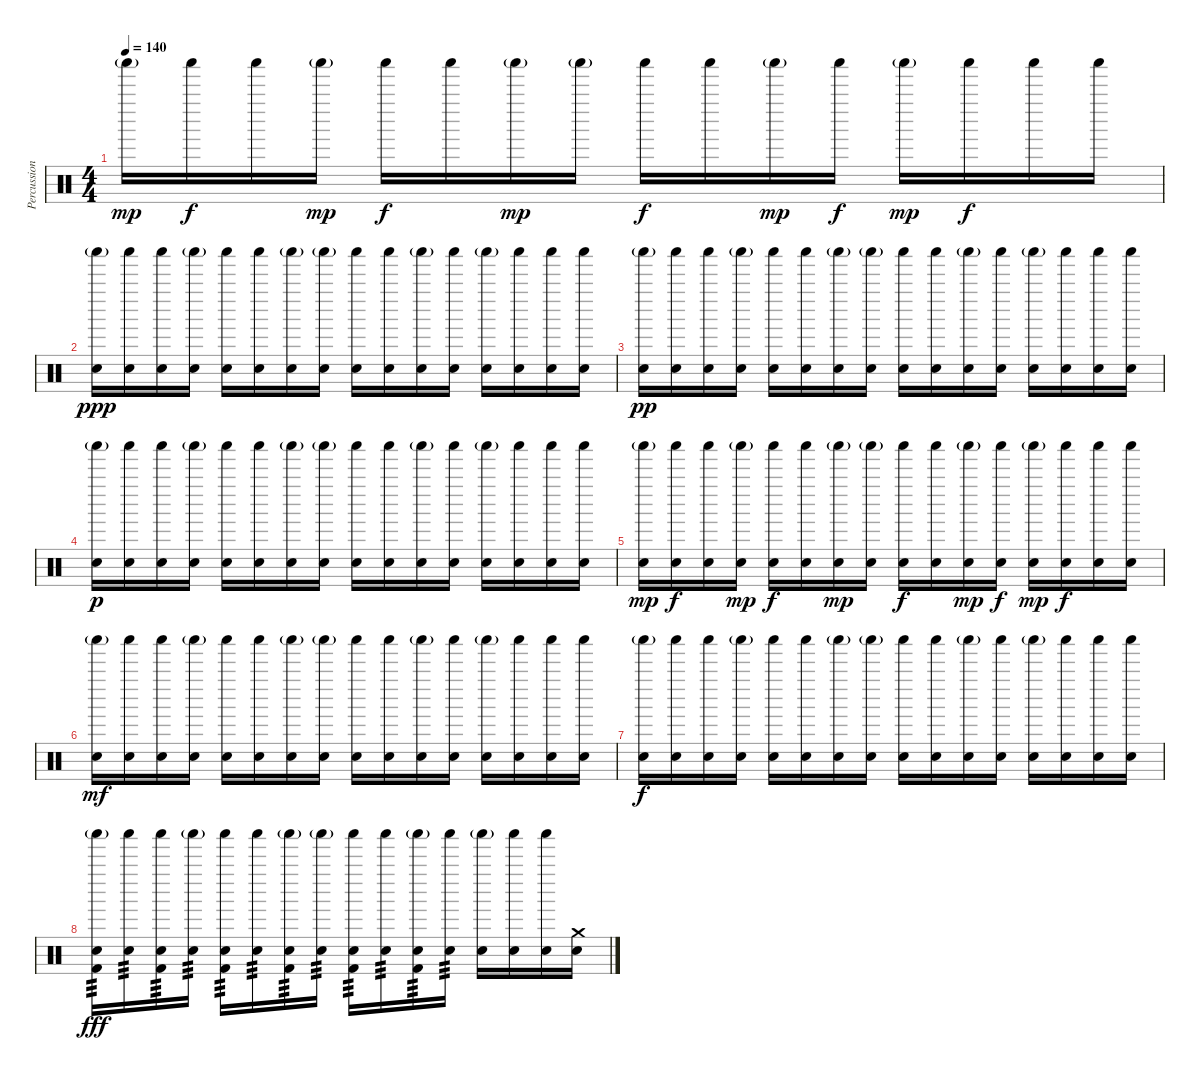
\track ("Percussion" "Percussion") {instrument percussion}
\staff {score}
\articulation defaults
\ts (4 4)
\tempo 140
\clef neutral
\ks c "Shaker (hit)"{g}.16{dy mp} "Shaker (hit)".16{dy f} "Shaker (hit)".16 "Shaker (hit)"{g}.16{dy mp} "Shaker (hit)".16{dy f} "Shaker (hit)".16 "Shaker (hit)"{g}.16{dy mp} "Shaker (hit)"{g}.16 "Shaker (hit)".16{dy f} "Shaker (hit)".16 "Shaker (hit)"{g}.16{dy mp} "Shaker (hit)".16{dy f} "Shaker (hit)"{g}.16{dy mp} "Shaker (hit)".16{dy f} "Shaker (hit)".16 "Shaker (hit)".16
|
("Shaker (hit)"{g} "Snare (hit) 2").16{dy ppp} ("Shaker (hit)" "Snare (hit) 2").16 ("Shaker (hit)" "Snare (hit) 2").16 ("Shaker (hit)"{g} "Snare (hit) 2").16 ("Shaker (hit)" "Snare (hit) 2").16 ("Shaker (hit)" "Snare (hit) 2").16 ("Shaker (hit)"{g} "Snare (hit) 2").16 ("Shaker (hit)"{g} "Snare (hit) 2").16 ("Shaker (hit)" "Snare (hit) 2").16 ("Shaker (hit)" "Snare (hit) 2").16 ("Shaker (hit)"{g} "Snare (hit) 2").16 ("Shaker (hit)" "Snare (hit) 2").16 ("Shaker (hit)"{g} "Snare (hit) 2").16 ("Shaker (hit)" "Snare (hit) 2").16 ("Shaker (hit)" "Snare (hit) 2").16 ("Shaker (hit)" "Snare (hit) 2").16 |
("Shaker (hit)"{g} "Snare (hit) 2").16{dy pp} ("Shaker (hit)" "Snare (hit) 2").16 ("Shaker (hit)" "Snare (hit) 2").16 ("Shaker (hit)"{g} "Snare (hit) 2").16 ("Shaker (hit)" "Snare (hit) 2").16 ("Shaker (hit)" "Snare (hit) 2").16 ("Shaker (hit)"{g} "Snare (hit) 2").16 ("Shaker (hit)"{g} "Snare (hit) 2").16 ("Shaker (hit)" "Snare (hit) 2").16 ("Shaker (hit)" "Snare (hit) 2").16 ("Shaker (hit)"{g} "Snare (hit) 2").16 ("Shaker (hit)" "Snare (hit) 2").16 ("Shaker (hit)"{g} "Snare (hit) 2").16 ("Shaker (hit)" "Snare (hit) 2").16 ("Shaker (hit)" "Snare (hit) 2").16 ("Shaker (hit)" "Snare (hit) 2").16 |
("Shaker (hit)"{g} "Snare (hit) 2").16{dy p} ("Shaker (hit)" "Snare (hit) 2").16 ("Shaker (hit)" "Snare (hit) 2").16 ("Shaker (hit)"{g} "Snare (hit) 2").16 ("Shaker (hit)" "Snare (hit) 2").16 ("Shaker (hit)" "Snare (hit) 2").16 ("Shaker (hit)"{g} "Snare (hit) 2").16 ("Shaker (hit)"{g} "Snare (hit) 2").16 ("Shaker (hit)" "Snare (hit) 2").16 ("Shaker (hit)" "Snare (hit) 2").16 ("Shaker (hit)"{g} "Snare (hit) 2").16 ("Shaker (hit)" "Snare (hit) 2").16 ("Shaker (hit)"{g} "Snare (hit) 2").16 ("Shaker (hit)" "Snare (hit) 2").16 ("Shaker (hit)" "Snare (hit) 2").16 ("Shaker (hit)" "Snare (hit) 2").16 |
("Shaker (hit)"{g} "Snare (hit) 2").16{dy mp} ("Shaker (hit)" "Snare (hit) 2").16{dy f} ("Shaker (hit)" "Snare (hit) 2").16 ("Shaker (hit)"{g} "Snare (hit) 2").16{dy mp} ("Shaker (hit)" "Snare (hit) 2").16{dy f} ("Shaker (hit)" "Snare (hit) 2").16 ("Shaker (hit)"{g} "Snare (hit) 2").16{dy mp} ("Shaker (hit)"{g} "Snare (hit) 2").16 ("Shaker (hit)" "Snare (hit) 2").16{dy f} ("Shaker (hit)" "Snare (hit) 2").16 ("Shaker (hit)"{g} "Snare (hit) 2").16{dy mp} ("Shaker (hit)" "Snare (hit) 2").16{dy f} ("Shaker (hit)"{g} "Snare (hit) 2").16{dy mp} ("Shaker (hit)" "Snare (hit) 2").16{dy f} ("Shaker (hit)" "Snare (hit) 2").16 ("Shaker (hit)" "Snare (hit) 2").16 |
("Shaker (hit)"{g} "Snare (hit) 2").16{dy mf} ("Shaker (hit)" "Snare (hit) 2").16 ("Shaker (hit)" "Snare (hit) 2").16 ("Shaker (hit)"{g} "Snare (hit) 2").16 ("Shaker (hit)" "Snare (hit) 2").16 ("Shaker (hit)" "Snare (hit) 2").16 ("Shaker (hit)"{g} "Snare (hit) 2").16 ("Shaker (hit)"{g} "Snare (hit) 2").16 ("Shaker (hit)" "Snare (hit) 2").16 ("Shaker (hit)" "Snare (hit) 2").16 ("Shaker (hit)"{g} "Snare (hit) 2").16 ("Shaker (hit)" "Snare (hit) 2").16 ("Shaker (hit)"{g} "Snare (hit) 2").16 ("Shaker (hit)" "Snare (hit) 2").16 ("Shaker (hit)" "Snare (hit) 2").16 ("Shaker (hit)" "Snare (hit) 2").16 |
("Shaker (hit)"{g} "Snare (hit) 2").16{dy f} ("Shaker (hit)" "Snare (hit) 2").16 ("Shaker (hit)" "Snare (hit) 2").16 ("Shaker (hit)"{g} "Snare (hit) 2").16 ("Shaker (hit)" "Snare (hit) 2").16 ("Shaker (hit)" "Snare (hit) 2").16 ("Shaker (hit)"{g} "Snare (hit) 2").16 ("Shaker (hit)"{g} "Snare (hit) 2").16 ("Shaker (hit)" "Snare (hit) 2").16 ("Shaker (hit)" "Snare (hit) 2").16 ("Shaker (hit)"{g} "Snare (hit) 2").16 ("Shaker (hit)" "Snare (hit) 2").16 ("Shaker (hit)"{g} "Snare (hit) 2").16 ("Shaker (hit)" "Snare (hit) 2").16 ("Shaker (hit)" "Snare (hit) 2").16 ("Shaker (hit)" "Snare (hit) 2").16 |
("Shaker (hit)"{g} "Snare (hit) 2" "Kick (hit) 2").16{tp 3 dy fff} ("Shaker (hit)" "Snare (hit) 2").16{tp 3} ("Shaker (hit)" "Snare (hit) 2" "Kick (hit) 2").16{tp 3} ("Shaker (hit)"{g} "Snare (hit) 2").16{tp 3} ("Shaker (hit)" "Snare (hit) 2" "Kick (hit) 2").16{tp 3} ("Shaker (hit)" "Snare (hit) 2").16{tp 3} ("Shaker (hit)"{g} "Snare (hit) 2" "Kick (hit) 2").16{tp 3} ("Shaker (hit)"{g} "Snare (hit) 2").16{tp 3} ("Shaker (hit)" "Snare (hit) 2" "Kick (hit) 2").16{tp 3} ("Shaker (hit)" "Snare (hit) 2").16{tp 3} ("Shaker (hit)"{g} "Snare (hit) 2" "Kick (hit) 2").16{tp 3} ("Shaker (hit)" "Snare (hit) 2").16{tp 3} ("Shaker (hit)"{g} "Snare (hit) 2").16 ("Shaker (hit)" "Snare (hit) 2").16 ("Shaker (hit)" "Snare (hit) 2").16 ("Crash medium (hit)" "Snare (hit) 2").16
